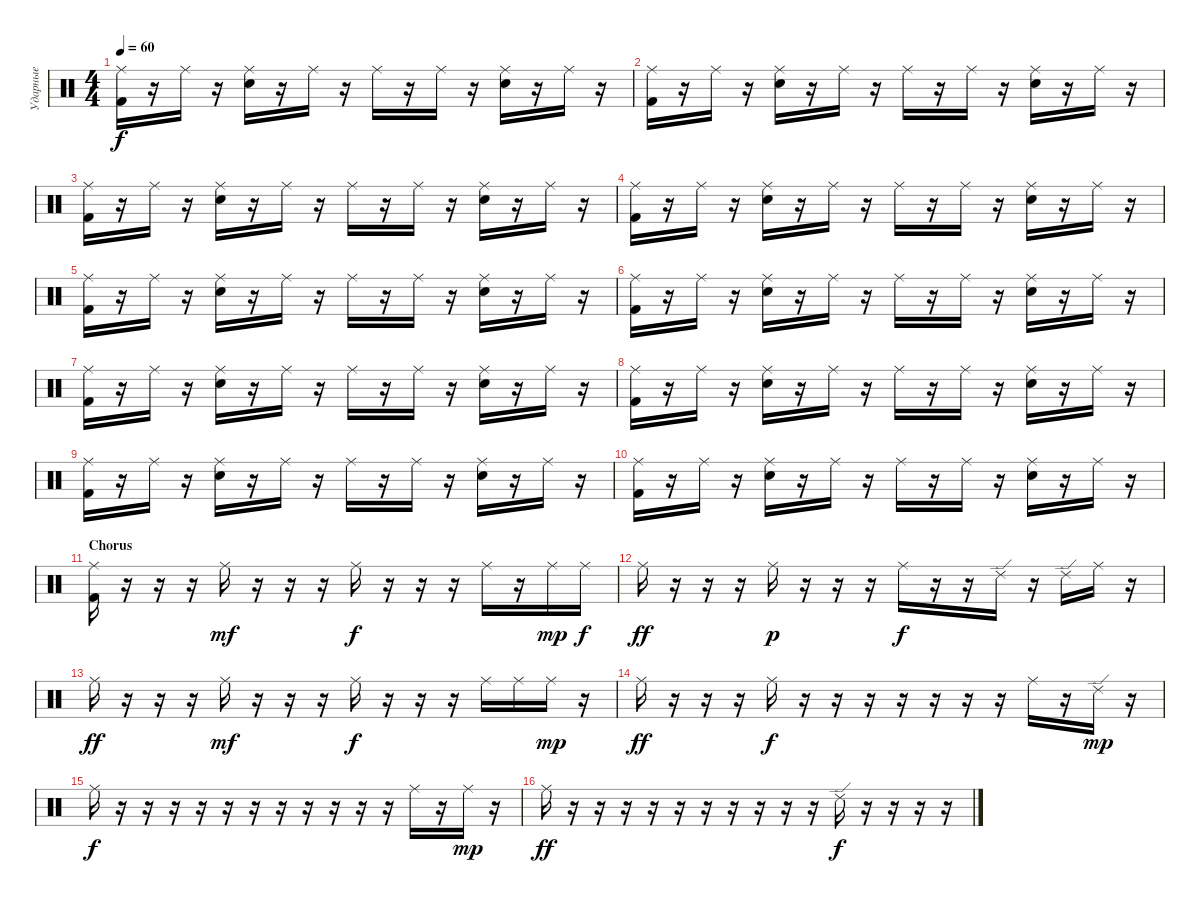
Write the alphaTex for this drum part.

\track ("Ударные" "Ударные") {instrument percussion}
\staff {score}
\articulation defaults
\ts (4 4)
\tempo 60
\clef neutral
\ks c
("Ride (middle)" "Kick (hit) 2").16{dy f} r.16 "Ride (middle)".16 r.16 ("Ride (middle)" "Electric Snare (hit)").16 r.16 "Ride (middle)".16 r.16 "Ride (middle)".16 r.16 "Ride (middle)".16 r.16 ("Ride (middle)" "Electric Snare (hit)").16 r.16 "Ride (middle)".16 r.16 |
("Ride (middle)" "Kick (hit) 2").16 r.16 "Ride (middle)".16 r.16 ("Ride (middle)" "Electric Snare (hit)").16 r.16 "Ride (middle)".16 r.16 "Ride (middle)".16 r.16 "Ride (middle)".16 r.16 ("Ride (middle)" "Electric Snare (hit)").16 r.16 "Ride (middle)".16 r.16 |
("Ride (middle)" "Kick (hit) 2").16 r.16 "Ride (middle)".16 r.16 ("Ride (middle)" "Electric Snare (hit)").16 r.16 "Ride (middle)".16 r.16 "Ride (middle)".16 r.16 "Ride (middle)".16 r.16 ("Ride (middle)" "Electric Snare (hit)").16 r.16 "Ride (middle)".16 r.16 |
("Ride (middle)" "Kick (hit) 2").16 r.16 "Ride (middle)".16 r.16 ("Ride (middle)" "Electric Snare (hit)").16 r.16 "Ride (middle)".16 r.16 "Ride (middle)".16 r.16 "Ride (middle)".16 r.16 ("Ride (middle)" "Electric Snare (hit)").16 r.16 "Ride (middle)".16 r.16 |
("Ride (middle)" "Kick (hit) 2").16 r.16 "Ride (middle)".16 r.16 ("Ride (middle)" "Electric Snare (hit)").16 r.16 "Ride (middle)".16 r.16 "Ride (middle)".16 r.16 "Ride (middle)".16 r.16 ("Ride (middle)" "Electric Snare (hit)").16 r.16 "Ride (middle)".16 r.16 |
("Ride (middle)" "Kick (hit) 2").16 r.16 "Ride (middle)".16 r.16 ("Ride (middle)" "Electric Snare (hit)").16 r.16 "Ride (middle)".16 r.16 "Ride (middle)".16 r.16 "Ride (middle)".16 r.16 ("Ride (middle)" "Electric Snare (hit)").16 r.16 "Ride (middle)".16 r.16 |
("Ride (middle)" "Kick (hit) 2").16 r.16 "Ride (middle)".16 r.16 ("Ride (middle)" "Electric Snare (hit)").16 r.16 "Ride (middle)".16 r.16 "Ride (middle)".16 r.16 "Ride (middle)".16 r.16 ("Ride (middle)" "Electric Snare (hit)").16 r.16 "Ride (middle)".16 r.16 |
("Ride (middle)" "Kick (hit) 2").16 r.16 "Ride (middle)".16 r.16 ("Ride (middle)" "Electric Snare (hit)").16 r.16 "Ride (middle)".16 r.16 "Ride (middle)".16 r.16 "Ride (middle)".16 r.16 ("Ride (middle)" "Electric Snare (hit)").16 r.16 "Ride (middle)".16 r.16 |
("Ride (middle)" "Kick (hit) 2").16 r.16 "Ride (middle)".16 r.16 ("Ride (middle)" "Electric Snare (hit)").16 r.16 "Ride (middle)".16 r.16 "Ride (middle)".16 r.16 "Ride (middle)".16 r.16 ("Ride (middle)" "Electric Snare (hit)").16 r.16 "Ride (middle)".16 r.16 |
("Ride (middle)" "Kick (hit) 2").16 r.16 "Ride (middle)".16 r.16 ("Ride (middle)" "Electric Snare (hit)").16 r.16 "Ride (middle)".16 r.16 "Ride (middle)".16 r.16 "Ride (middle)".16 r.16 ("Ride (middle)" "Electric Snare (hit)").16 r.16 "Ride (middle)".16 r.16 |
\section ("" "Chorus")
("Ride (middle)" "Kick (hit) 2").16 r.16 r.16 r.16 "Ride (middle)".16{dy mf} r.16 r.16 r.16 "Ride (middle)".16{dy f} r.16 r.16 r.16 "Ride (middle)".16 r.16 "Ride (middle)".16{dy mp} "Ride (middle)".16{dy f} |
"Ride (middle)".16{dy ff} r.16 r.16 r.16 "Ride (middle)".16{dy p} r.16 r.16 r.16 "Ride (middle)".16{dy f} r.16 r.16 "Ride (edge) 2".16 r.16 "Ride (edge) 2".16 "Ride (middle)".16 r.16 |
"Ride (middle)".16{dy ff} r.16 r.16 r.16 "Ride (middle)".16{dy mf} r.16 r.16 r.16 "Ride (middle)".16{dy f} r.16 r.16 r.16 "Ride (middle)".16 "Ride (middle)".16 "Ride (middle)".16{dy mp} r.16 |
"Ride (middle)".16{dy ff} r.16 r.16 r.16 "Ride (middle)".16{dy f} r.16 r.16 r.16 r.16 r.16 r.16 r.16 "Ride (middle)".16 r.16 "Ride (edge) 2".16{dy mp} r.16 |
"Ride (middle)".16{dy f} r.16 r.16 r.16 r.16 r.16 r.16 r.16 r.16 r.16 r.16 r.16 "Ride (middle)".16 r.16 "Ride (middle)".16{dy mp} r.16 |
"Ride (middle)".16{dy ff} r.16 r.16 r.16 r.16 r.16 r.16 r.16 r.16 r.16 r.16 "Ride (edge) 2".16{dy f} r.16 r.16 r.16 r.16
